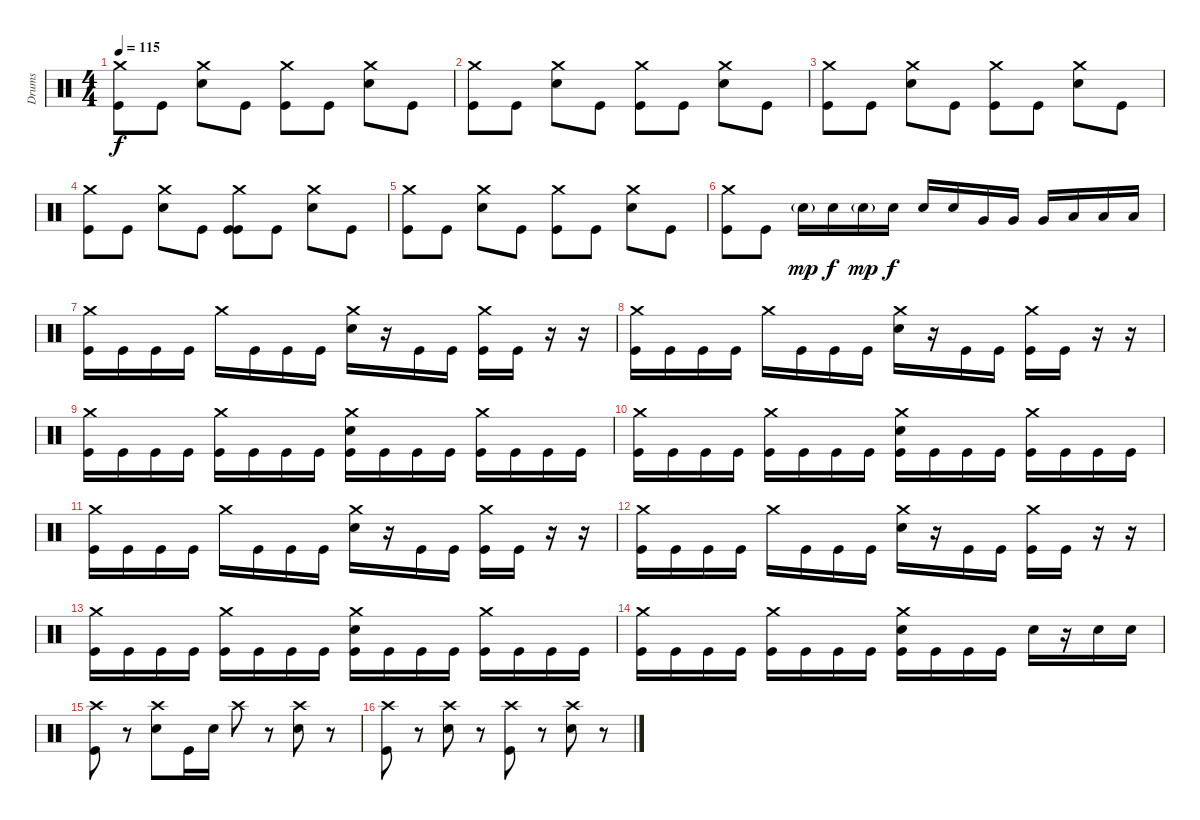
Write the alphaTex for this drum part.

\track ("Drums" "Drums") {instrument percussion}
\staff {score}
\articulation defaults
\ts (4 4)
\tempo 115
\clef neutral
\ks c
("Crash medium (hit)" "Kick (hit)").8{dy f} "Kick (hit)".8 ("Crash medium (hit)" "Electric Snare (hit)").8 "Kick (hit)".8 ("Crash medium (hit)" "Kick (hit)").8 "Kick (hit)".8 ("Crash medium (hit)" "Electric Snare (hit)").8 "Kick (hit)".8 |
("Crash medium (hit)" "Kick (hit)").8 "Kick (hit)".8 ("Crash medium (hit)" "Electric Snare (hit)").8 "Kick (hit)".8 ("Crash medium (hit)" "Kick (hit)").8 "Kick (hit)".8 ("Crash medium (hit)" "Electric Snare (hit)").8 "Kick (hit)".8 |
("Crash medium (hit)" "Kick (hit)").8 "Kick (hit)".8 ("Crash medium (hit)" "Electric Snare (hit)").8 "Kick (hit)".8 ("Crash medium (hit)" "Kick (hit)").8 "Kick (hit)".8 ("Crash medium (hit)" "Electric Snare (hit)").8 "Kick (hit)".8 |
("Crash medium (hit)" "Kick (hit)").8 "Kick (hit)".8 ("Crash medium (hit)" "Electric Snare (hit)").8 "Kick (hit)".8 ("Crash medium (hit)" "Kick (hit)" "Kick (hit)").8 "Kick (hit)".8 ("Crash medium (hit)" "Electric Snare (hit)").8 "Kick (hit)".8 |
("Crash medium (hit)" "Kick (hit)").8 "Kick (hit)".8 ("Crash medium (hit)" "Electric Snare (hit)").8 "Kick (hit)".8 ("Crash medium (hit)" "Kick (hit)").8 "Kick (hit)".8 ("Crash medium (hit)" "Electric Snare (hit)").8 "Kick (hit)".8 |
("Crash medium (hit)" "Kick (hit)").8 "Kick (hit)".8 "Electric Snare (hit)"{g}.16{dy mp} "Electric Snare (hit)".16{dy f} "Electric Snare (hit)"{g}.16{dy mp} "Electric Snare (hit)".16{dy f} "Electric Snare (hit)".16 "Electric Snare (hit)".16 "Very Low Tom (hit)".16 "Very Low Tom (hit)".16 "Very Low Tom (hit)".16 "Low Floor Tom (hit)".16 "Low Floor Tom (hit)".16 "Low Floor Tom (hit)".16 |
("Crash medium (hit)" "Kick (hit)").16 "Kick (hit)".16 "Kick (hit)".16 "Kick (hit)".16 "Crash medium (hit)".16 "Kick (hit)".16 "Kick (hit)".16 "Kick (hit)".16 ("Crash medium (hit)" "Electric Snare (hit)").16 r.16 "Kick (hit)".16 "Kick (hit)".16 ("Crash medium (hit)" "Kick (hit)").16 "Kick (hit)".16 r.16 r.16 |
("Crash medium (hit)" "Kick (hit)").16 "Kick (hit)".16 "Kick (hit)".16 "Kick (hit)".16 "Crash medium (hit)".16 "Kick (hit)".16 "Kick (hit)".16 "Kick (hit)".16 ("Crash medium (hit)" "Electric Snare (hit)").16 r.16 "Kick (hit)".16 "Kick (hit)".16 ("Crash medium (hit)" "Kick (hit)").16 "Kick (hit)".16 r.16 r.16 |
("Crash medium (hit)" "Kick (hit)").16 "Kick (hit)".16 "Kick (hit)".16 "Kick (hit)".16 ("Crash medium (hit)" "Kick (hit)").16 "Kick (hit)".16 "Kick (hit)".16 "Kick (hit)".16 ("Crash medium (hit)" "Electric Snare (hit)" "Kick (hit)").16 "Kick (hit)".16 "Kick (hit)".16 "Kick (hit)".16 ("Crash medium (hit)" "Kick (hit)").16 "Kick (hit)".16 "Kick (hit)".16 "Kick (hit)".16 |
("Crash medium (hit)" "Kick (hit)").16 "Kick (hit)".16 "Kick (hit)".16 "Kick (hit)".16 ("Crash medium (hit)" "Kick (hit)").16 "Kick (hit)".16 "Kick (hit)".16 "Kick (hit)".16 ("Crash medium (hit)" "Electric Snare (hit)" "Kick (hit)").16 "Kick (hit)".16 "Kick (hit)".16 "Kick (hit)".16 ("Crash medium (hit)" "Kick (hit)").16 "Kick (hit)".16 "Kick (hit)".16 "Kick (hit)".16 |
("Crash medium (hit)" "Kick (hit)").16 "Kick (hit)".16 "Kick (hit)".16 "Kick (hit)".16 "Crash medium (hit)".16 "Kick (hit)".16 "Kick (hit)".16 "Kick (hit)".16 ("Crash medium (hit)" "Electric Snare (hit)").16 r.16 "Kick (hit)".16 "Kick (hit)".16 ("Crash medium (hit)" "Kick (hit)").16 "Kick (hit)".16 r.16 r.16 |
("Crash medium (hit)" "Kick (hit)").16 "Kick (hit)".16 "Kick (hit)".16 "Kick (hit)".16 "Crash medium (hit)".16 "Kick (hit)".16 "Kick (hit)".16 "Kick (hit)".16 ("Crash medium (hit)" "Electric Snare (hit)").16 r.16 "Kick (hit)".16 "Kick (hit)".16 ("Crash medium (hit)" "Kick (hit)").16 "Kick (hit)".16 r.16 r.16 |
("Crash medium (hit)" "Kick (hit)").16 "Kick (hit)".16 "Kick (hit)".16 "Kick (hit)".16 ("Crash medium (hit)" "Kick (hit)").16 "Kick (hit)".16 "Kick (hit)".16 "Kick (hit)".16 ("Crash medium (hit)" "Electric Snare (hit)" "Kick (hit)").16 "Kick (hit)".16 "Kick (hit)".16 "Kick (hit)".16 ("Crash medium (hit)" "Kick (hit)").16 "Kick (hit)".16 "Kick (hit)".16 "Kick (hit)".16 |
("Crash medium (hit)" "Kick (hit)").16 "Kick (hit)".16 "Kick (hit)".16 "Kick (hit)".16 ("Crash medium (hit)" "Kick (hit)").16 "Kick (hit)".16 "Kick (hit)".16 "Kick (hit)".16 ("Crash medium (hit)" "Electric Snare (hit)" "Kick (hit)").16 "Kick (hit)".16 "Kick (hit)".16 "Kick (hit)".16 "Electric Snare (hit)".16 r.16 "Electric Snare (hit)".16 "Electric Snare (hit)".16 |
("Crash high (hit)" "Kick (hit)").8 r.8 ("Crash high (hit)" "Electric Snare (hit)").8 "Kick (hit)".16 "Electric Snare (hit)".16 "Crash high (hit)".8 r.8 ("Crash high (hit)" "Electric Snare (hit)").8 r.8 |
("Crash high (hit)" "Kick (hit)").8 r.8 ("Crash high (hit)" "Electric Snare (hit)").8 r.8 ("Crash high (hit)" "Kick (hit)").8 r.8 ("Crash high (hit)" "Electric Snare (hit)").8 r.8
